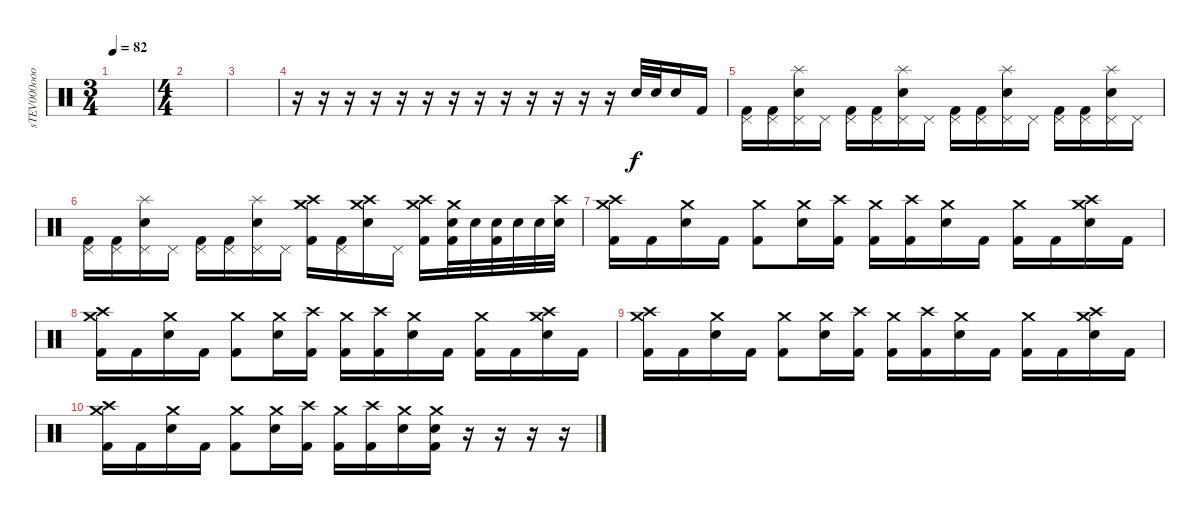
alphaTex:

\track ("sTEV000oooooooooOOOO 32" "sTEV000ooo") {instrument percussion}
\staff {score}
\articulation defaults
\ts (3 4)
\tempo 82
\clef neutral
\ks c
|
\ts (4 4)
|
|
r.16 r.16 r.16 r.16 r.16 r.16 r.16 r.16 r.16 r.16 r.16 r.16 r.16 "Electric Snare (hit)".32 "Electric Snare (hit)".32 "Electric Snare (hit)".16 "Kick (hit) 2".16 |
("Pedal Hi-Hat (hit)" "Kick (hit) 2").16 ("Pedal Hi-Hat (hit)" "Kick (hit) 2").16 ("Splash (hit)" "Pedal Hi-Hat (hit)" "Electric Snare (hit)").16 "Pedal Hi-Hat (hit)".16 ("Pedal Hi-Hat (hit)" "Kick (hit) 2").16 ("Pedal Hi-Hat (hit)" "Kick (hit) 2").16 ("Splash (hit)" "Pedal Hi-Hat (hit)" "Electric Snare (hit)").16 "Pedal Hi-Hat (hit)".16 ("Pedal Hi-Hat (hit)" "Kick (hit) 2").16 ("Pedal Hi-Hat (hit)" "Kick (hit) 2").16 ("Splash (hit)" "Pedal Hi-Hat (hit)" "Electric Snare (hit)").16 "Pedal Hi-Hat (hit)".16 ("Pedal Hi-Hat (hit)" "Kick (hit) 2").16 ("Pedal Hi-Hat (hit)" "Kick (hit) 2").16 ("Splash (hit)" "Pedal Hi-Hat (hit)" "Electric Snare (hit)").16 "Pedal Hi-Hat (hit)".16 |
("Pedal Hi-Hat (hit)" "Kick (hit) 2").16 ("Pedal Hi-Hat (hit)" "Kick (hit) 2").16 ("Splash (hit)" "Pedal Hi-Hat (hit)" "Electric Snare (hit)").16 "Pedal Hi-Hat (hit)".16 ("Pedal Hi-Hat (hit)" "Kick (hit) 2").16 ("Pedal Hi-Hat (hit)" "Kick (hit) 2").16 ("Splash (hit)" "Pedal Hi-Hat (hit)" "Electric Snare (hit)").16 "Pedal Hi-Hat (hit)".16 ("Crash high (hit)" "Crash medium (hit)" "Kick (hit) 2").16 ("Pedal Hi-Hat (hit)" "Kick (hit) 2").16 ("Crash high (hit)" "Crash medium (hit)" "Electric Snare (hit)").16 "Pedal Hi-Hat (hit)".16 ("Crash high (hit)" "Crash medium (hit)" "Kick (hit) 2").16 ("Crash medium (hit)" "Electric Snare (hit)" "Kick (hit) 2").32 "Electric Snare (hit)".32 ("Kick (hit) 2" "Electric Snare (hit)").32 "Electric Snare (hit)".32 "Electric Snare (hit)".32 ("Electric Snare (hit)" "Crash high (hit)").32 |
("Crash medium (hit)" "Crash high (hit)" "Kick (hit) 2").16 "Kick (hit) 2".16 ("Crash medium (hit)" "Electric Snare (hit)").16 "Kick (hit) 2".16 ("Crash medium (hit)" "Kick (hit) 2").8 ("Crash medium (hit)" "Electric Snare (hit)").16 ("Crash high (hit)" "Kick (hit) 2").16 ("Crash medium (hit)" "Kick (hit) 2").16 ("Crash high (hit)" "Kick (hit) 2").16 ("Crash medium (hit)" "Electric Snare (hit)").16 "Kick (hit) 2".16 ("Crash medium (hit)" "Kick (hit) 2").16 "Kick (hit) 2".16 ("Crash medium (hit)" "Crash high (hit)" "Electric Snare (hit)").16 "Kick (hit) 2".16 |
("Crash medium (hit)" "Crash high (hit)" "Kick (hit) 2").16 "Kick (hit) 2".16 ("Crash medium (hit)" "Electric Snare (hit)").16 "Kick (hit) 2".16 ("Crash medium (hit)" "Kick (hit) 2").8 ("Crash medium (hit)" "Electric Snare (hit)").16 ("Crash high (hit)" "Kick (hit) 2").16 ("Crash medium (hit)" "Kick (hit) 2").16 ("Crash high (hit)" "Kick (hit) 2").16 ("Crash medium (hit)" "Electric Snare (hit)").16 "Kick (hit) 2".16 ("Crash medium (hit)" "Kick (hit) 2").16 "Kick (hit) 2".16 ("Crash medium (hit)" "Crash high (hit)" "Electric Snare (hit)").16 "Kick (hit) 2".16 |
("Crash medium (hit)" "Crash high (hit)" "Kick (hit) 2").16 "Kick (hit) 2".16 ("Crash medium (hit)" "Electric Snare (hit)").16 "Kick (hit) 2".16 ("Crash medium (hit)" "Kick (hit) 2").8 ("Crash medium (hit)" "Electric Snare (hit)").16 ("Crash high (hit)" "Kick (hit) 2").16 ("Crash medium (hit)" "Kick (hit) 2").16 ("Crash high (hit)" "Kick (hit) 2").16 ("Crash medium (hit)" "Electric Snare (hit)").16 "Kick (hit) 2".16 ("Crash medium (hit)" "Kick (hit) 2").16 "Kick (hit) 2".16 ("Crash medium (hit)" "Crash high (hit)" "Electric Snare (hit)").16 "Kick (hit) 2".16 |
("Crash medium (hit)" "Crash high (hit)" "Kick (hit) 2").16 "Kick (hit) 2".16 ("Crash medium (hit)" "Electric Snare (hit)").16 "Kick (hit) 2".16 ("Crash medium (hit)" "Kick (hit) 2").8 ("Crash medium (hit)" "Electric Snare (hit)").16 ("Crash high (hit)" "Kick (hit) 2").16 ("Crash medium (hit)" "Kick (hit) 2").16 ("Crash high (hit)" "Kick (hit) 2").16 ("Crash medium (hit)" "Electric Snare (hit)").16 ("Crash medium (hit)" "Electric Snare (hit)" "Kick (hit) 2").16 r.16 r.16 r.16 r.16
